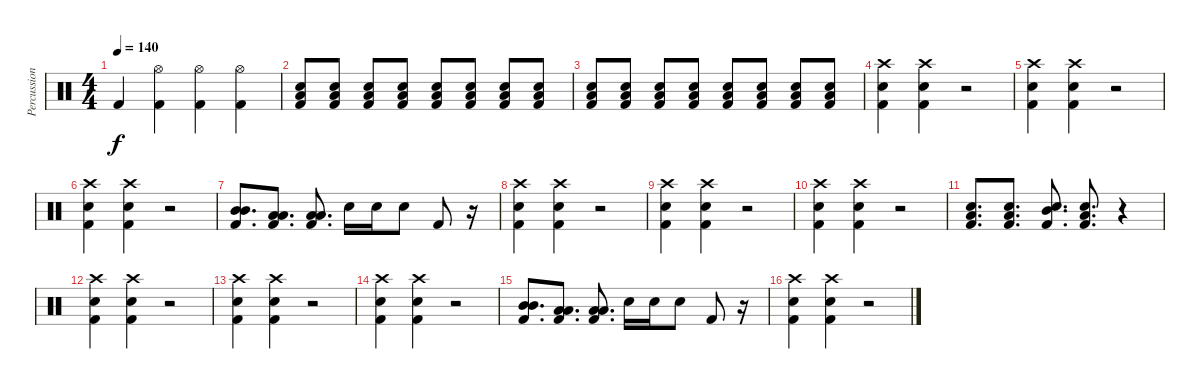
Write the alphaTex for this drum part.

\track ("Percussion" "Percussion") {instrument percussion}
\staff {score}
\articulation defaults
\ts (4 4)
\tempo 140
\clef neutral
\ks c "Kick (hit) 2".4{dy f}
("Hi-Hat (open)" "Kick (hit) 2").4 ("Hi-Hat (open)" "Kick (hit) 2").4 ("Hi-Hat (open)" "Kick (hit) 2").4 |
("Low Floor Tom (hit)" "Electric Snare (hit)" "Kick (hit) 2").8{volume 8} ("Low Floor Tom (hit)" "Electric Snare (hit)" "Kick (hit) 2").8{volume 13} ("Low Floor Tom (hit)" "Electric Snare (hit)" "Kick (hit) 2").8 ("Low Floor Tom (hit)" "Electric Snare (hit)" "Kick (hit) 2").8 ("Low Floor Tom (hit)" "Electric Snare (hit)" "Kick (hit) 2").8 ("Low Floor Tom (hit)" "Electric Snare (hit)" "Kick (hit) 2").8 ("Low Floor Tom (hit)" "Electric Snare (hit)" "Kick (hit) 2").8 ("Low Floor Tom (hit)" "Electric Snare (hit)" "Kick (hit) 2").8 |
("Low Floor Tom (hit)" "Electric Snare (hit)" "Kick (hit) 2").8 ("Low Floor Tom (hit)" "Electric Snare (hit)" "Kick (hit) 2").8 ("Low Floor Tom (hit)" "Electric Snare (hit)" "Kick (hit) 2").8 ("Low Floor Tom (hit)" "Electric Snare (hit)" "Kick (hit) 2").8 ("Low Floor Tom (hit)" "Electric Snare (hit)" "Kick (hit) 2").8 ("Low Floor Tom (hit)" "Electric Snare (hit)" "Kick (hit) 2").8 ("Low Floor Tom (hit)" "Electric Snare (hit)" "Kick (hit) 2").8 ("Low Floor Tom (hit)" "Electric Snare (hit)" "Kick (hit) 2").8 |
("Crash high (hit)" "Electric Snare (hit)" "Kick (hit) 2").4 ("Crash high (hit)" "Electric Snare (hit)" "Kick (hit) 2").4 r.2 |
("Crash high (hit)" "Electric Snare (hit)" "Kick (hit) 2").4 ("Crash high (hit)" "Electric Snare (hit)" "Kick (hit) 2").4 r.2 |
("Crash high (hit)" "Electric Snare (hit)" "Kick (hit) 2").4 ("Crash high (hit)" "Electric Snare (hit)" "Kick (hit) 2").4 r.2 |
("Mid Tom (hit)" "Mid Tom (hit)" "Kick (hit) 2").8{d} ("Low Tom (hit)" "Low Tom (hit)" "Kick (hit) 2").8{d} ("Low Floor Tom (hit)" "Low Floor Tom (hit)" "Kick (hit) 2").8{d} "Electric Snare (hit)".16 "Electric Snare (hit)".16 "Electric Snare (hit)".8 "Kick (hit) 2".8 r.16 |
("Crash high (hit)" "Electric Snare (hit)" "Kick (hit) 2").4 ("Crash high (hit)" "Electric Snare (hit)" "Kick (hit) 2").4 r.2 |
("Crash high (hit)" "Electric Snare (hit)" "Kick (hit) 2").4 ("Crash high (hit)" "Electric Snare (hit)" "Kick (hit) 2").4 r.2 |
("Crash high (hit)" "Electric Snare (hit)" "Kick (hit) 2").4 ("Crash high (hit)" "Electric Snare (hit)" "Kick (hit) 2").4 r.2 |
("Low Floor Tom (hit)" "Electric Snare (hit)" "Kick (hit) 2").8{d} ("Low Tom (hit)" "Electric Snare (hit)" "Kick (hit) 2").8{d} ("Mid Tom (hit)" "Electric Snare (hit)" "Kick (hit) 2").8{d} ("Low Tom (hit)" "Electric Snare (hit)" "Kick (hit) 2").8{d} r.4 |
("Crash high (hit)" "Electric Snare (hit)" "Kick (hit) 2").4 ("Crash high (hit)" "Electric Snare (hit)" "Kick (hit) 2").4 r.2 |
("Crash high (hit)" "Electric Snare (hit)" "Kick (hit) 2").4 ("Crash high (hit)" "Electric Snare (hit)" "Kick (hit) 2").4 r.2 |
("Crash high (hit)" "Electric Snare (hit)" "Kick (hit) 2").4 ("Crash high (hit)" "Electric Snare (hit)" "Kick (hit) 2").4 r.2 |
("Mid Tom (hit)" "Mid Tom (hit)" "Kick (hit) 2").8{d} ("Low Tom (hit)" "Low Tom (hit)" "Kick (hit) 2").8{d} ("Low Floor Tom (hit)" "Low Floor Tom (hit)" "Kick (hit) 2").8{d} "Electric Snare (hit)".16 "Electric Snare (hit)".16 "Electric Snare (hit)".8 "Kick (hit) 2".8 r.16 |
("Crash high (hit)" "Electric Snare (hit)" "Kick (hit) 2").4 ("Crash high (hit)" "Electric Snare (hit)" "Kick (hit) 2").4 r.2
